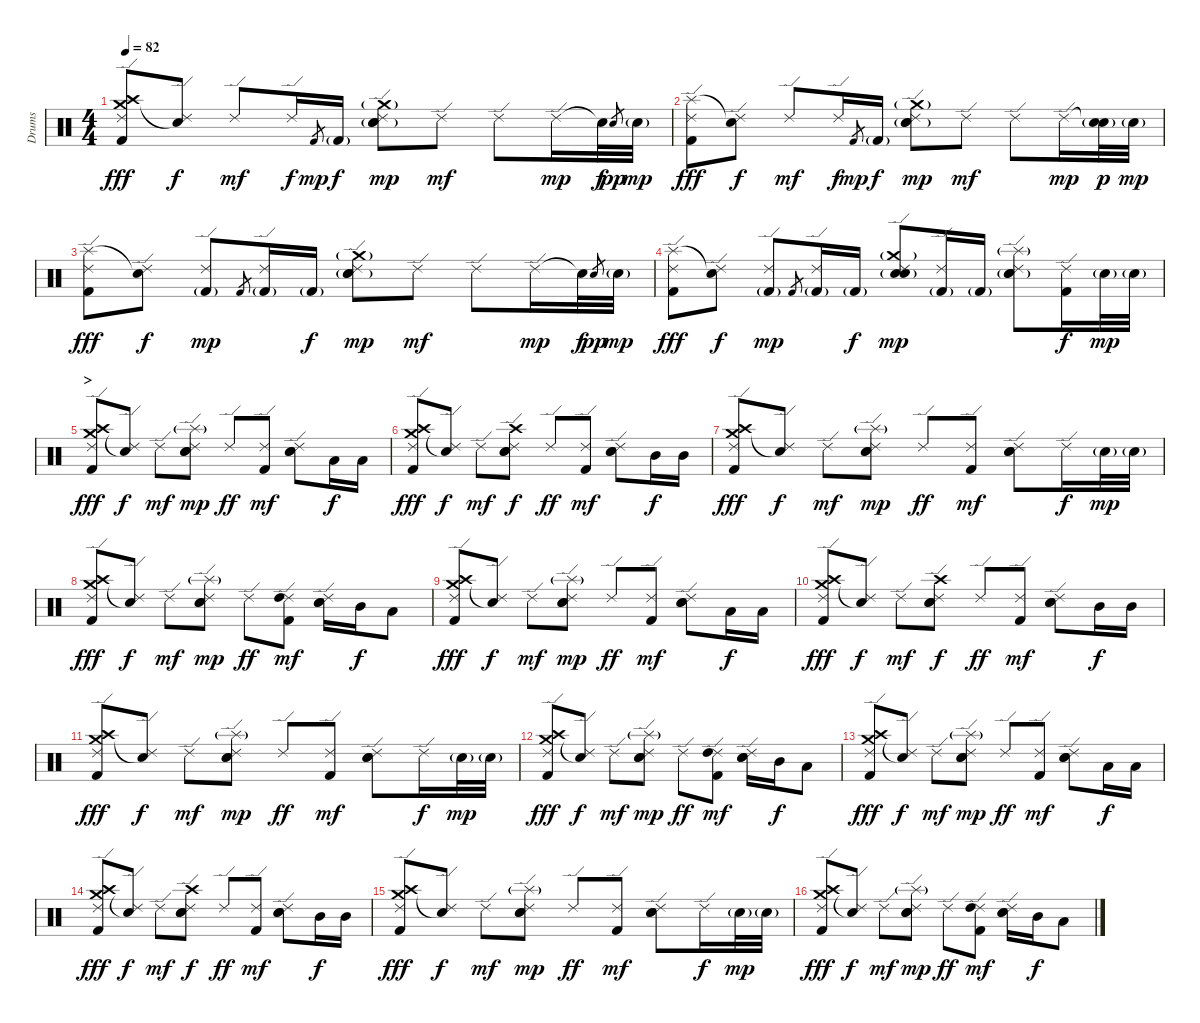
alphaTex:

\track ("Drums" "Drums") {instrument percussion}
\staff {score}
\articulation defaults
\ts (4 4)
\tempo 82
\clef neutral
\ks c
("Ride (edge) 2" "Crash high (hit)" "Crash medium (hit)" "Kick (hit) 2").8{dy fff} ("Ride (edge) 2" "Snare (hit)"{t}).8{dy f} "Ride (edge) 2".8{dy mf} "Ride (edge) 2".16{dy f} "Kick (hit) 2".8{gr dy mp} "Kick (hit) 2"{g}.16{dy f} ("Ride (edge) 2" "Crash medium (hit)"{g} "Snare (hit) 2"{g} "Electric Snare (hit)").8{dy mp} "Ride (edge) 2".8{dy mf} "Ride (edge) 2".8 "Ride (edge) 2".16{dy mp} "Snare (hit)"{t}.32{dy f} "Electric Snare (hit)".8{gr dy pp} "Electric Snare (hit)"{g}.32{dy mp} |
("Ride (edge) 2" "Splash (hit)" "Kick (hit) 2").8{dy fff} ("Ride (edge) 2" "Snare (hit)"{t}).8{dy f} "Ride (edge) 2".8{dy mf} "Ride (edge) 2".16{dy f} "Kick (hit) 2".8{gr dy mp} "Kick (hit) 2"{g}.16{dy f} ("Ride (edge) 2" "Crash medium (hit)"{g} "Snare (hit) 2"{g} "Electric Snare (hit)").8{dy mp} "Ride (edge) 2".8{dy mf} "Ride (edge) 2".8 "Ride (edge) 2".16{dy mp} ("Snare (hit)"{t} "Electric Snare (hit)"{g}).32{dy p} "Electric Snare (hit)"{g}.32{dy mp} |
("Ride (edge) 2" "Splash (hit)" "Kick (hit) 2").8{dy fff} ("Ride (edge) 2" "Snare (hit)"{t}).8{dy f} ("Ride (edge) 2" "Kick (hit) 2"{g}).8{dy mp} "Kick (hit) 2".8{gr} ("Ride (edge) 2" "Kick (hit) 2"{g}).16 "Kick (hit) 2"{g}.16{dy f} ("Ride (edge) 2" "Crash medium (hit)"{g} "Snare (hit) 2"{g} "Electric Snare (hit)").8{dy mp} "Ride (edge) 2".8{dy mf} "Ride (edge) 2".8 "Ride (edge) 2".16{dy mp} "Snare (hit)"{t}.32{dy f} "Electric Snare (hit)".8{gr dy pp} "Electric Snare (hit)"{g}.32{dy mp} |
("Ride (edge) 2" "Splash (hit)" "Kick (hit) 2").8{dy fff} ("Ride (edge) 2" "Snare (hit)"{t}).8{dy f} ("Ride (edge) 2" "Kick (hit) 2"{g}).8{dy mp} "Kick (hit) 2".8{gr} ("Ride (edge) 2" "Kick (hit) 2"{g}).16 "Kick (hit) 2"{g}.16{dy f} ("Ride (edge) 2" "Crash medium (hit)"{g} "Snare (hit) 2"{g} "Electric Snare (hit)").8{dy mp} ("Ride (edge) 2" "Kick (hit) 2"{g}).16 "Kick (hit) 2"{g}.16 ("Ride (edge) 2" "Splash (hit)"{g} "Snare (hit) 2"{g} "Electric Snare (hit)").8 ("Ride (edge) 2" "Kick (hit) 2").16{dy f} "Electric Snare (hit)"{g}.32{dy mp} "Electric Snare (hit)"{g}.32 |
\section ("" ">")
("Ride (edge) 2" "Crash high (hit)" "Crash medium (hit)" "Kick (hit) 2").8{dy fff} ("Ride (edge) 2" "Snare (hit)"{t}).8{dy f} "Ride (edge) 2".8{dy mf} ("Ride (edge) 2" "Splash (hit)"{g} "Snare (hit) 2" "Electric Snare (hit)").8{dy mp} "Ride (edge) 2".8{dy ff} ("Ride (edge) 2" "Kick (hit) 2").8{dy mf} ("Ride (edge) 2" "Snare (hit) 2" "Electric Snare (hit)").8 "Low Tom (hit)".16{dy f} "Low Tom (hit)".16 |
("Ride (edge) 2" "Crash high (hit)" "Crash medium (hit)" "Kick (hit) 2").8{dy fff} ("Ride (edge) 2" "Snare (hit)"{t}).8{dy f} "Ride (edge) 2".8{dy mf} ("Ride (edge) 2" "Crash high (hit)" "Snare (hit) 2" "Electric Snare (hit)").8{dy f} "Ride (edge) 2".8{dy ff} ("Ride (edge) 2" "Kick (hit) 2").8{dy mf} ("Ride (edge) 2" "Snare (hit) 2" "Electric Snare (hit)").8 "Mid Tom (hit)".16{dy f} "Mid Tom (hit)".16 |
("Ride (edge) 2" "Crash high (hit)" "Crash medium (hit)" "Kick (hit) 2").8{dy fff} ("Ride (edge) 2" "Snare (hit)"{t}).8{dy f} "Ride (edge) 2".8{dy mf} ("Ride (edge) 2" "Splash (hit)"{g} "Snare (hit) 2" "Electric Snare (hit)").8{dy mp} "Ride (edge) 2".8{dy ff} ("Ride (edge) 2" "Kick (hit) 2").8{dy mf} ("Ride (edge) 2" "Snare (hit) 2" "Electric Snare (hit)").8 "Ride (edge) 2".16{dy f} "Electric Snare (hit)"{g}.32{dy mp} "Electric Snare (hit)"{g}.32 |
("Ride (edge) 2" "Crash high (hit)" "Crash medium (hit)" "Kick (hit) 2").8{dy fff} ("Ride (edge) 2" "Snare (hit)"{t}).8{dy f} "Ride (edge) 2".8{dy mf} ("Ride (edge) 2" "Splash (hit)"{g} "Snare (hit) 2" "Electric Snare (hit)").8{dy mp} "Ride (edge) 2".8{dy ff} ("Ride (edge) 2" "High Tom (hit)" "Kick (hit) 2").8{dy mf} ("Ride (edge) 2" "Snare (hit) 2" "Electric Snare (hit)").16 "Mid Tom (hit)".16{dy f} "Low Tom (hit)".8 |
("Ride (edge) 2" "Crash high (hit)" "Crash medium (hit)" "Kick (hit) 2").8{dy fff} ("Ride (edge) 2" "Snare (hit)"{t}).8{dy f} "Ride (edge) 2".8{dy mf} ("Ride (edge) 2" "Splash (hit)"{g} "Snare (hit) 2" "Electric Snare (hit)").8{dy mp} "Ride (edge) 2".8{dy ff} ("Ride (edge) 2" "Kick (hit) 2").8{dy mf} ("Ride (edge) 2" "Snare (hit) 2" "Electric Snare (hit)").8 "Low Tom (hit)".16{dy f} "Low Tom (hit)".16 |
("Ride (edge) 2" "Crash high (hit)" "Crash medium (hit)" "Kick (hit) 2").8{dy fff} ("Ride (edge) 2" "Snare (hit)"{t}).8{dy f} "Ride (edge) 2".8{dy mf} ("Ride (edge) 2" "Crash high (hit)" "Snare (hit) 2" "Electric Snare (hit)").8{dy f} "Ride (edge) 2".8{dy ff} ("Ride (edge) 2" "Kick (hit) 2").8{dy mf} ("Ride (edge) 2" "Snare (hit) 2" "Electric Snare (hit)").8 "Mid Tom (hit)".16{dy f} "Mid Tom (hit)".16 |
("Ride (edge) 2" "Crash high (hit)" "Crash medium (hit)" "Kick (hit) 2").8{dy fff} ("Ride (edge) 2" "Snare (hit)"{t}).8{dy f} "Ride (edge) 2".8{dy mf} ("Ride (edge) 2" "Splash (hit)"{g} "Snare (hit) 2" "Electric Snare (hit)").8{dy mp} "Ride (edge) 2".8{dy ff} ("Ride (edge) 2" "Kick (hit) 2").8{dy mf} ("Ride (edge) 2" "Snare (hit) 2" "Electric Snare (hit)").8 "Ride (edge) 2".16{dy f} "Electric Snare (hit)"{g}.32{dy mp} "Electric Snare (hit)"{g}.32 |
("Ride (edge) 2" "Crash high (hit)" "Crash medium (hit)" "Kick (hit) 2").8{dy fff} ("Ride (edge) 2" "Snare (hit)"{t}).8{dy f} "Ride (edge) 2".8{dy mf} ("Ride (edge) 2" "Splash (hit)"{g} "Snare (hit) 2" "Electric Snare (hit)").8{dy mp} "Ride (edge) 2".8{dy ff} ("Ride (edge) 2" "High Tom (hit)" "Kick (hit) 2").8{dy mf} ("Ride (edge) 2" "Snare (hit) 2" "Electric Snare (hit)").16 "Mid Tom (hit)".16{dy f} "Low Tom (hit)".8 |
("Ride (edge) 2" "Crash high (hit)" "Crash medium (hit)" "Kick (hit) 2").8{dy fff} ("Ride (edge) 2" "Snare (hit)"{t}).8{dy f} "Ride (edge) 2".8{dy mf} ("Ride (edge) 2" "Splash (hit)"{g} "Snare (hit) 2" "Electric Snare (hit)").8{dy mp} "Ride (edge) 2".8{dy ff} ("Ride (edge) 2" "Kick (hit) 2").8{dy mf} ("Ride (edge) 2" "Snare (hit) 2" "Electric Snare (hit)").8 "Low Tom (hit)".16{dy f} "Low Tom (hit)".16 |
("Ride (edge) 2" "Crash high (hit)" "Crash medium (hit)" "Kick (hit) 2").8{dy fff} ("Ride (edge) 2" "Snare (hit)"{t}).8{dy f} "Ride (edge) 2".8{dy mf} ("Ride (edge) 2" "Crash high (hit)" "Snare (hit) 2" "Electric Snare (hit)").8{dy f} "Ride (edge) 2".8{dy ff} ("Ride (edge) 2" "Kick (hit) 2").8{dy mf} ("Ride (edge) 2" "Snare (hit) 2" "Electric Snare (hit)").8 "Mid Tom (hit)".16{dy f} "Mid Tom (hit)".16 |
("Ride (edge) 2" "Crash high (hit)" "Crash medium (hit)" "Kick (hit) 2").8{dy fff} ("Ride (edge) 2" "Snare (hit)"{t}).8{dy f} "Ride (edge) 2".8{dy mf} ("Ride (edge) 2" "Splash (hit)"{g} "Snare (hit) 2" "Electric Snare (hit)").8{dy mp} "Ride (edge) 2".8{dy ff} ("Ride (edge) 2" "Kick (hit) 2").8{dy mf} ("Ride (edge) 2" "Snare (hit) 2" "Electric Snare (hit)").8 "Ride (edge) 2".16{dy f} "Electric Snare (hit)"{g}.32{dy mp} "Electric Snare (hit)"{g}.32 |
("Ride (edge) 2" "Crash high (hit)" "Crash medium (hit)" "Kick (hit) 2").8{dy fff} ("Ride (edge) 2" "Snare (hit)"{t}).8{dy f} "Ride (edge) 2".8{dy mf} ("Ride (edge) 2" "Splash (hit)"{g} "Snare (hit) 2" "Electric Snare (hit)").8{dy mp} "Ride (edge) 2".8{dy ff} ("Ride (edge) 2" "High Tom (hit)" "Kick (hit) 2").8{dy mf} ("Ride (edge) 2" "Snare (hit) 2" "Electric Snare (hit)").16 "Mid Tom (hit)".16{dy f} "Low Tom (hit)".8
